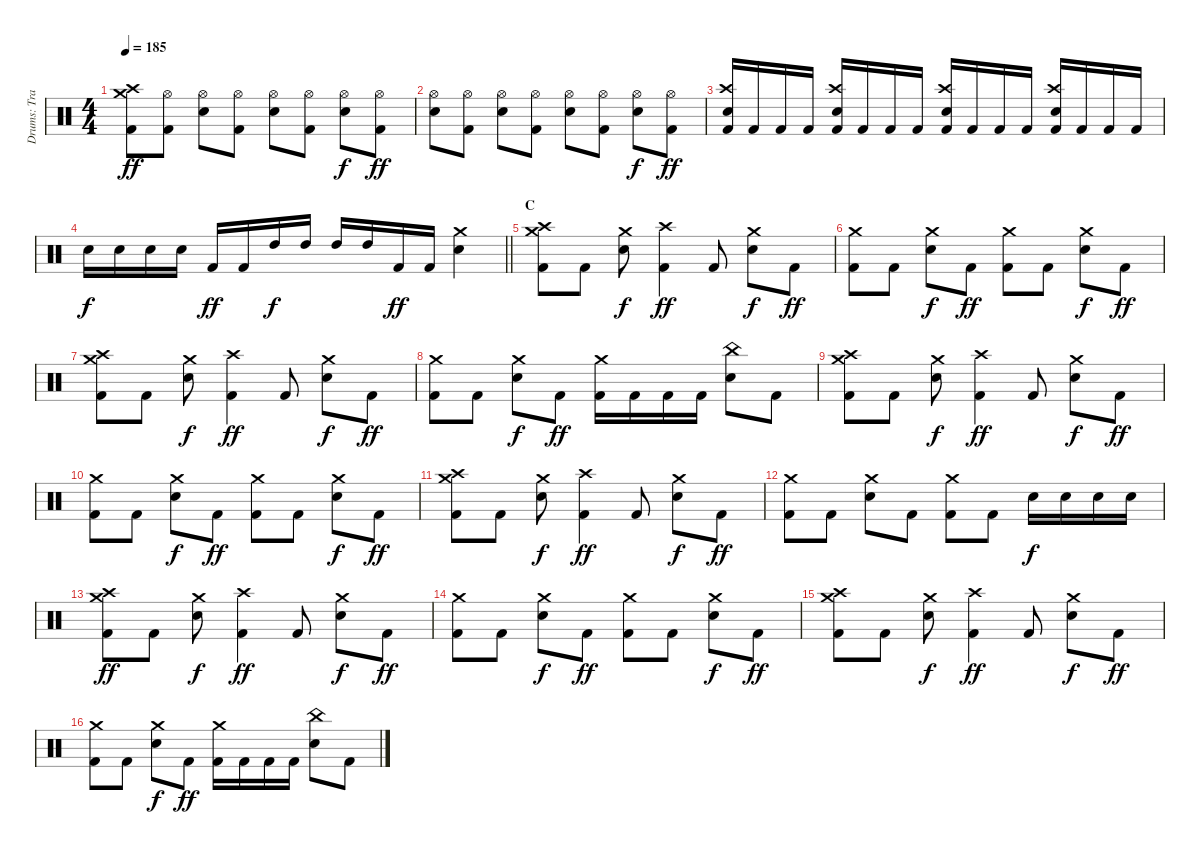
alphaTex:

\track ("Drums: Travis Clarke" "Drums: Tra") {instrument percussion}
\staff {score}
\articulation defaults
\ts (4 4)
\tempo 185
\clef neutral
\ks c
("Kick (hit) 2" "Crash high (hit)" "Crash medium (hit)").8{dy ff} ("Kick (hit) 2" "Hi-Hat (open)").8 ("Snare (hit) 2" "Hi-Hat (open)").8 ("Kick (hit) 2" "Hi-Hat (open)").8 ("Snare (hit) 2" "Hi-Hat (open)").8 ("Kick (hit) 2" "Hi-Hat (open)").8 ("Snare (hit) 2" "Hi-Hat (open)").8{dy f} ("Kick (hit) 2" "Hi-Hat (open)").8{dy ff} |
("Snare (hit) 2" "Hi-Hat (open)").8 ("Kick (hit) 2" "Hi-Hat (open)").8 ("Snare (hit) 2" "Hi-Hat (open)").8 ("Kick (hit) 2" "Hi-Hat (open)").8 ("Snare (hit) 2" "Hi-Hat (open)").8 ("Kick (hit) 2" "Hi-Hat (open)").8 ("Snare (hit) 2" "Hi-Hat (open)").8{dy f} ("Kick (hit) 2" "Hi-Hat (open)").8{dy ff} |
("Kick (hit) 2" "Snare (hit) 2" "Crash high (hit)").16 "Kick (hit) 2".16 "Kick (hit) 2".16 "Kick (hit) 2".16 ("Kick (hit) 2" "Snare (hit) 2" "Crash high (hit)").16 "Kick (hit) 2".16 "Kick (hit) 2".16 "Kick (hit) 2".16 ("Kick (hit) 2" "Snare (hit) 2" "Crash high (hit)").16 "Kick (hit) 2".16 "Kick (hit) 2".16 "Kick (hit) 2".16 ("Kick (hit) 2" "Snare (hit) 2" "Crash high (hit)").16 "Kick (hit) 2".16 "Kick (hit) 2".16 "Kick (hit) 2".16 |
\barLineRight lightlight "Snare (hit) 2".16{dy f} "Snare (hit) 2".16 "Snare (hit) 2".16 "Snare (hit) 2".16 "Kick (hit) 2".16{dy ff} "Kick (hit) 2".16 "High Tom (hit)".16{dy f} "High Tom (hit)".16 "High Tom (hit)".16 "High Tom (hit)".16 "Kick (hit) 2".16{dy ff} "Kick (hit) 2".16
("Snare (hit) 2" "Crash medium (hit)").4 |
\section ("" "C")
("Kick (hit) 2" "Crash high (hit)" "Crash medium (hit)").8 "Kick (hit) 2".8 ("Snare (hit) 2" "Crash medium (hit)").8{dy f} ("Kick (hit) 2" "Crash high (hit)").4{dy ff} "Kick (hit) 2".8 ("Snare (hit) 2" "Crash medium (hit)").8{dy f} "Kick (hit) 2".8{dy ff} |
("Kick (hit) 2" "Crash medium (hit)").8 "Kick (hit) 2".8 ("Snare (hit) 2" "Crash medium (hit)").8{dy f} "Kick (hit) 2".8{dy ff} ("Kick (hit) 2" "Crash medium (hit)").8 "Kick (hit) 2".8 ("Snare (hit) 2" "Crash medium (hit)").8{dy f} "Kick (hit) 2".8{dy ff} |
("Kick (hit) 2" "Crash high (hit)" "Crash medium (hit)").8 "Kick (hit) 2".8 ("Snare (hit) 2" "Crash medium (hit)").8{dy f} ("Kick (hit) 2" "Crash high (hit)").4{dy ff} "Kick (hit) 2".8 ("Snare (hit) 2" "Crash medium (hit)").8{dy f} "Kick (hit) 2".8{dy ff} |
("Kick (hit) 2" "Crash medium (hit)").8 "Kick (hit) 2".8 ("Snare (hit) 2" "Crash medium (hit)").8{dy f} "Kick (hit) 2".8{dy ff} ("Kick (hit) 2" "Crash medium (hit)").16 "Kick (hit) 2".16 "Kick (hit) 2".16 "Kick (hit) 2".16 ("Snare (hit) 2" "China (hit)").8 "Kick (hit) 2".8 |
("Kick (hit) 2" "Crash high (hit)" "Crash medium (hit)").8 "Kick (hit) 2".8 ("Snare (hit) 2" "Crash medium (hit)").8{dy f} ("Kick (hit) 2" "Crash high (hit)").4{dy ff} "Kick (hit) 2".8 ("Snare (hit) 2" "Crash medium (hit)").8{dy f} "Kick (hit) 2".8{dy ff} |
("Kick (hit) 2" "Crash medium (hit)").8 "Kick (hit) 2".8 ("Snare (hit) 2" "Crash medium (hit)").8{dy f} "Kick (hit) 2".8{dy ff} ("Kick (hit) 2" "Crash medium (hit)").8 "Kick (hit) 2".8 ("Snare (hit) 2" "Crash medium (hit)").8{dy f} "Kick (hit) 2".8{dy ff} |
("Kick (hit) 2" "Crash high (hit)" "Crash medium (hit)").8 "Kick (hit) 2".8 ("Snare (hit) 2" "Crash medium (hit)").8{dy f} ("Kick (hit) 2" "Crash high (hit)").4{dy ff} "Kick (hit) 2".8 ("Snare (hit) 2" "Crash medium (hit)").8{dy f} "Kick (hit) 2".8{dy ff} |
("Kick (hit) 2" "Crash medium (hit)").8 "Kick (hit) 2".8 ("Snare (hit) 2" "Crash medium (hit)").8 "Kick (hit) 2".8 ("Kick (hit) 2" "Crash medium (hit)").8 "Kick (hit) 2".8 "Snare (hit) 2".16{dy f} "Snare (hit) 2".16 "Snare (hit) 2".16 "Snare (hit) 2".16 |
("Kick (hit) 2" "Crash high (hit)" "Crash medium (hit)").8{dy ff} "Kick (hit) 2".8 ("Snare (hit) 2" "Crash medium (hit)").8{dy f} ("Kick (hit) 2" "Crash high (hit)").4{dy ff} "Kick (hit) 2".8 ("Snare (hit) 2" "Crash medium (hit)").8{dy f} "Kick (hit) 2".8{dy ff} |
("Kick (hit) 2" "Crash medium (hit)").8 "Kick (hit) 2".8 ("Snare (hit) 2" "Crash medium (hit)").8{dy f} "Kick (hit) 2".8{dy ff} ("Kick (hit) 2" "Crash medium (hit)").8 "Kick (hit) 2".8 ("Snare (hit) 2" "Crash medium (hit)").8{dy f} "Kick (hit) 2".8{dy ff} |
("Kick (hit) 2" "Crash high (hit)" "Crash medium (hit)").8 "Kick (hit) 2".8 ("Snare (hit) 2" "Crash medium (hit)").8{dy f} ("Kick (hit) 2" "Crash high (hit)").4{dy ff} "Kick (hit) 2".8 ("Snare (hit) 2" "Crash medium (hit)").8{dy f} "Kick (hit) 2".8{dy ff} |
("Kick (hit) 2" "Crash medium (hit)").8 "Kick (hit) 2".8 ("Snare (hit) 2" "Crash medium (hit)").8{dy f} "Kick (hit) 2".8{dy ff} ("Kick (hit) 2" "Crash medium (hit)").16 "Kick (hit) 2".16 "Kick (hit) 2".16 "Kick (hit) 2".16 ("Snare (hit) 2" "China (hit)").8 "Kick (hit) 2".8
